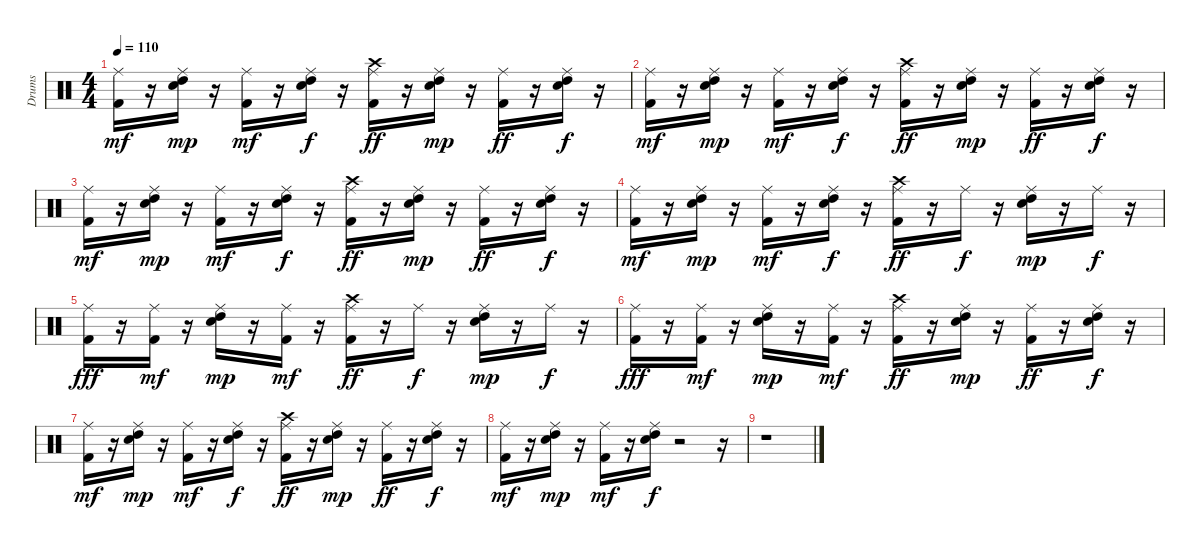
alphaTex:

\track ("Drums" "Drums") {instrument percussion}
\staff {score}
\articulation defaults
\ts (4 4)
\tempo 110
\clef neutral
\ks c
("Ride (middle)" "Kick (hit) 2").16{dy mf} r.16 ("Ride (middle)" "Snare (hit) 2" "High Tom (hit)").16{dy mp} r.16 ("Ride (middle)" "Kick (hit) 2").16{dy mf} r.16 ("Ride (middle)" "Snare (hit) 2" "High Tom (hit)").16{dy f} r.16 ("Ride (middle)" "Crash high (hit)" "Kick (hit) 2").16{dy ff} r.16 ("Ride (middle)" "Snare (hit) 2" "High Tom (hit)").16{dy mp} r.16 ("Ride (middle)" "Kick (hit) 2").16{dy ff} r.16 ("Ride (middle)" "Snare (hit) 2" "High Tom (hit)").16{dy f} r.16 |
("Ride (middle)" "Kick (hit) 2").16{dy mf} r.16 ("Ride (middle)" "Snare (hit) 2" "High Tom (hit)").16{dy mp} r.16 ("Ride (middle)" "Kick (hit) 2").16{dy mf} r.16 ("Ride (middle)" "Snare (hit) 2" "High Tom (hit)").16{dy f} r.16 ("Ride (middle)" "Crash high (hit)" "Kick (hit) 2").16{dy ff} r.16 ("Ride (middle)" "Snare (hit) 2" "High Tom (hit)").16{dy mp} r.16 ("Ride (middle)" "Kick (hit) 2").16{dy ff} r.16 ("Ride (middle)" "High Tom (hit)" "Snare (hit) 2").16{dy f} r.16 |
("Ride (middle)" "Kick (hit) 2").16{dy mf} r.16 ("Ride (middle)" "Snare (hit) 2" "High Tom (hit)").16{dy mp} r.16 ("Ride (middle)" "Kick (hit) 2").16{dy mf} r.16 ("Ride (middle)" "Snare (hit) 2" "High Tom (hit)").16{dy f} r.16 ("Ride (middle)" "Crash high (hit)" "Kick (hit) 2").16{dy ff} r.16 ("Ride (middle)" "Snare (hit) 2" "High Tom (hit)").16{dy mp} r.16 ("Ride (middle)" "Kick (hit) 2").16{dy ff} r.16 ("Ride (middle)" "Snare (hit) 2" "High Tom (hit)").16{dy f} r.16 |
("Ride (middle)" "Kick (hit) 2").16{dy mf} r.16 ("Ride (middle)" "Snare (hit) 2" "High Tom (hit)").16{dy mp} r.16 ("Ride (middle)" "Kick (hit) 2").16{dy mf} r.16 ("Ride (middle)" "Snare (hit) 2" "High Tom (hit)").16{dy f} r.16 ("Ride (middle)" "Crash high (hit)" "Kick (hit) 2").16{dy ff} r.16 "Ride (middle)".16{dy f} r.16 ("Ride (middle)" "High Tom (hit)" "Snare (hit) 2").16{dy mp} r.16 "Ride (middle)".16{dy f} r.16 |
("Ride (middle)" "Kick (hit) 2").16{dy fff} r.16 ("Ride (middle)" "Kick (hit) 2").16{dy mf} r.16 ("Ride (middle)" "High Tom (hit)" "Snare (hit) 2").16{dy mp} r.16 ("Ride (middle)" "Kick (hit) 2").16{dy mf} r.16 ("Ride (middle)" "Crash high (hit)" "Kick (hit) 2").16{dy ff} r.16 "Ride (middle)".16{dy f} r.16 ("Ride (middle)" "High Tom (hit)" "Snare (hit) 2").16{dy mp} r.16 "Ride (middle)".16{dy f} r.16 |
("Ride (middle)" "Kick (hit) 2").16{dy fff} r.16 ("Ride (middle)" "Kick (hit) 2").16{dy mf} r.16 ("Ride (middle)" "High Tom (hit)" "Snare (hit) 2").16{dy mp} r.16 ("Ride (middle)" "Kick (hit) 2").16{dy mf} r.16 ("Ride (middle)" "Crash high (hit)" "Kick (hit) 2").16{dy ff} r.16 ("Ride (middle)" "Snare (hit) 2" "High Tom (hit)").16{dy mp} r.16 ("Ride (middle)" "Kick (hit) 2").16{dy ff} r.16 ("Ride (middle)" "Snare (hit) 2" "High Tom (hit)").16{dy f} r.16 |
("Ride (middle)" "Kick (hit) 2").16{dy mf} r.16 ("Ride (middle)" "Snare (hit) 2" "High Tom (hit)").16{dy mp} r.16 ("Ride (middle)" "Kick (hit) 2").16{dy mf} r.16 ("Ride (middle)" "Snare (hit) 2" "High Tom (hit)").16{dy f} r.16 ("Ride (middle)" "Crash high (hit)" "Kick (hit) 2").16{dy ff} r.16 ("Ride (middle)" "Snare (hit) 2" "High Tom (hit)").16{dy mp} r.16 ("Ride (middle)" "Kick (hit) 2").16{dy ff} r.16 ("Ride (middle)" "Snare (hit) 2" "High Tom (hit)").16{dy f} r.16 |
("Ride (middle)" "Kick (hit) 2").16{dy mf} r.16 ("Ride (middle)" "Snare (hit) 2" "High Tom (hit)").16{dy mp} r.16 ("Ride (middle)" "Kick (hit) 2").16{dy mf} r.16 ("Ride (middle)" "Snare (hit) 2" "High Tom (hit)").16{dy f} r.2 r.16 |
r.1
